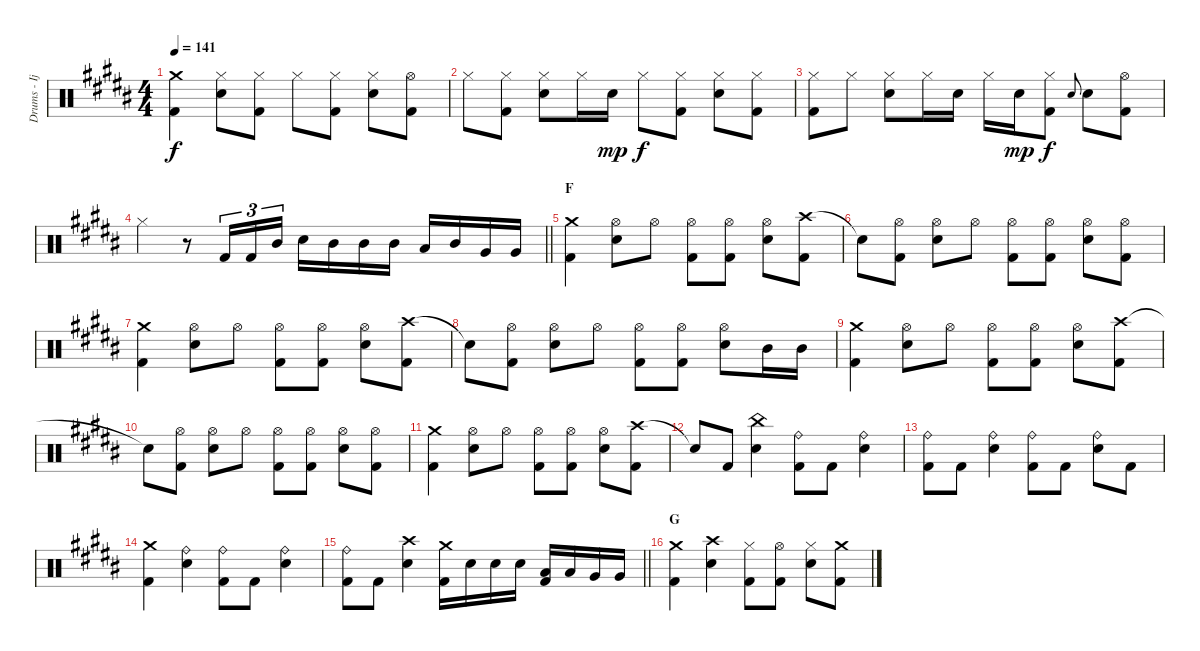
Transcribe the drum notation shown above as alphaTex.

\track ("Drums - Ijichi" "Drums - Ij") {instrument percussion}
\staff {score}
\articulation defaults
\ts (4 4)
\tempo 141
\clef neutral
\ks b
("Crash medium (hit)" "Kick (hit) 2").4{dy f} ("Hi-Hat (closed)" "Electric Snare (hit)").8 ("Hi-Hat (closed)" "Kick (hit) 2").8 "Hi-Hat (closed)".8 ("Hi-Hat (closed)" "Kick (hit) 2").8 ("Hi-Hat (closed)" "Electric Snare (hit)").8 ("Hi-Hat (open)" "Kick (hit) 2").8 |
"Hi-Hat (closed)".8 ("Hi-Hat (closed)" "Kick (hit) 2").8 ("Hi-Hat (closed)" "Electric Snare (hit)").8 "Hi-Hat (closed)".16 "Electric Snare (hit)".16{dy mp} "Hi-Hat (closed)".8{dy f} ("Hi-Hat (closed)" "Kick (hit) 2").8 ("Hi-Hat (closed)" "Electric Snare (hit)").8 ("Hi-Hat (closed)" "Kick (hit) 2").8 |
("Hi-Hat (closed)" "Kick (hit) 2").8 "Hi-Hat (closed)".8 ("Hi-Hat (closed)" "Electric Snare (hit)").8 "Hi-Hat (closed)".16 "Electric Snare (hit)".16 "Hi-Hat (closed)".16 "Electric Snare (hit)".16{dy mp} ("Hi-Hat (closed)" "Kick (hit) 2").8{dy f} "Electric Snare (hit)".8{gr onbeat} "Electric Snare (hit)".8 ("Hi-Hat (open)" "Kick (hit) 2").8 |
\barLineRight lightlight "Hi-Hat (closed)".4
r.8 "Kick (hit) 2".16{tu (3 2)} "Kick (hit) 2".16{tu (3 2)} "Mid Tom (hit)".16{tu (3 2)} "Electric Snare (hit)".16 "Mid Tom (hit)".16 "Mid Tom (hit)".16 "Mid Tom (hit)".16 "Low Tom (hit)".16 "Mid Tom (hit)".16 "Very Low Tom (hit)".16 "Very Low Tom (hit)".16 |
\section ("" "F")
("Crash medium (hit)" "Kick (hit) 2").4 ("Hi-Hat (open)" "Electric Snare (hit)").8 "Hi-Hat (open)".8 ("Hi-Hat (open)" "Kick (hit) 2").8 ("Hi-Hat (open)" "Kick (hit) 2").8 ("Hi-Hat (open)" "Electric Snare (hit)").8 ("Crash high (hit)" "Kick (hit) 2").8 |
"Snare (hit)"{t}.8 ("Hi-Hat (open)" "Kick (hit) 2").8 ("Hi-Hat (open)" "Electric Snare (hit)").8 "Hi-Hat (open)".8 ("Hi-Hat (open)" "Kick (hit) 2").8 ("Hi-Hat (open)" "Kick (hit) 2").8 ("Hi-Hat (open)" "Electric Snare (hit)").8 ("Hi-Hat (open)" "Kick (hit) 2").8 |
("Crash medium (hit)" "Kick (hit) 2").4 ("Hi-Hat (open)" "Electric Snare (hit)").8 "Hi-Hat (open)".8 ("Hi-Hat (open)" "Kick (hit) 2").8 ("Hi-Hat (open)" "Kick (hit) 2").8 ("Hi-Hat (open)" "Electric Snare (hit)").8 ("Crash high (hit)" "Kick (hit) 2").8 |
"Snare (hit)"{t}.8 ("Hi-Hat (open)" "Kick (hit) 2").8 ("Hi-Hat (open)" "Electric Snare (hit)").8 "Hi-Hat (open)".8 ("Hi-Hat (open)" "Kick (hit) 2").8 ("Hi-Hat (open)" "Kick (hit) 2").8 ("Hi-Hat (open)" "Electric Snare (hit)").8 "Mid Tom (hit)".16 "Mid Tom (hit)".16 |
("Crash medium (hit)" "Kick (hit) 2").4 ("Hi-Hat (open)" "Electric Snare (hit)").8 "Hi-Hat (open)".8 ("Hi-Hat (open)" "Kick (hit) 2").8 ("Hi-Hat (open)" "Kick (hit) 2").8 ("Hi-Hat (open)" "Electric Snare (hit)").8 ("Crash high (hit)" "Kick (hit) 2").8 |
"Snare (hit)"{t}.8 ("Hi-Hat (open)" "Kick (hit) 2").8 ("Hi-Hat (open)" "Electric Snare (hit)").8 "Hi-Hat (open)".8 ("Hi-Hat (open)" "Kick (hit) 2").8 ("Hi-Hat (open)" "Kick (hit) 2").8 ("Hi-Hat (open)" "Electric Snare (hit)").8 ("Hi-Hat (open)" "Kick (hit) 2").8 |
("Crash medium (hit)" "Kick (hit) 2").4 ("Hi-Hat (open)" "Electric Snare (hit)").8 "Hi-Hat (open)".8 ("Hi-Hat (open)" "Kick (hit) 2").8 ("Hi-Hat (open)" "Kick (hit) 2").8 ("Hi-Hat (open)" "Electric Snare (hit)").8 ("Crash high (hit)" "Kick (hit) 2").8 |
"Snare (hit)"{t}.8 "Kick (hit) 2".8 ("China (hit)" "Electric Snare (hit)").4 ("Ride (bell)" "Kick (hit) 2").8 "Kick (hit) 2".8 ("Ride (bell)" "Electric Snare (hit)").4 |
("Ride (bell)" "Kick (hit) 2").8 "Kick (hit) 2".8 ("Ride (bell)" "Electric Snare (hit)").4 ("Ride (bell)" "Kick (hit) 2").8 "Kick (hit) 2".8 ("Ride (bell)" "Electric Snare (hit)").8 "Kick (hit) 2".8 |
("Crash medium (hit)" "Kick (hit) 2").4 ("Ride (bell)" "Electric Snare (hit)").4 ("Ride (bell)" "Kick (hit) 2").8 "Kick (hit) 2".8 ("Ride (bell)" "Electric Snare (hit)").4 |
\barLineRight lightlight
("Ride (bell)" "Kick (hit) 2").8 "Kick (hit) 2".8 ("Crash high (hit)" "Electric Snare (hit)").4 ("Crash medium (hit)" "Kick (hit) 2").16 "Electric Snare (hit)".16 "Electric Snare (hit)".16 "Electric Snare (hit)".16 ("Low Tom (hit)" "Kick (hit) 2").16 "Low Tom (hit)".16 "Very Low Tom (hit)".16 "Very Low Tom (hit)".16 |
\section ("" "G")
("Crash medium (hit)" "Kick (hit) 2").4 ("Crash high (hit)" "Electric Snare (hit)").4 ("Hi-Hat (closed)" "Kick (hit) 2").8 ("Hi-Hat (open)" "Kick (hit) 2").8 ("Hi-Hat (closed)" "Electric Snare (hit)").8 ("Crash medium (hit)" "Kick (hit) 2").8
